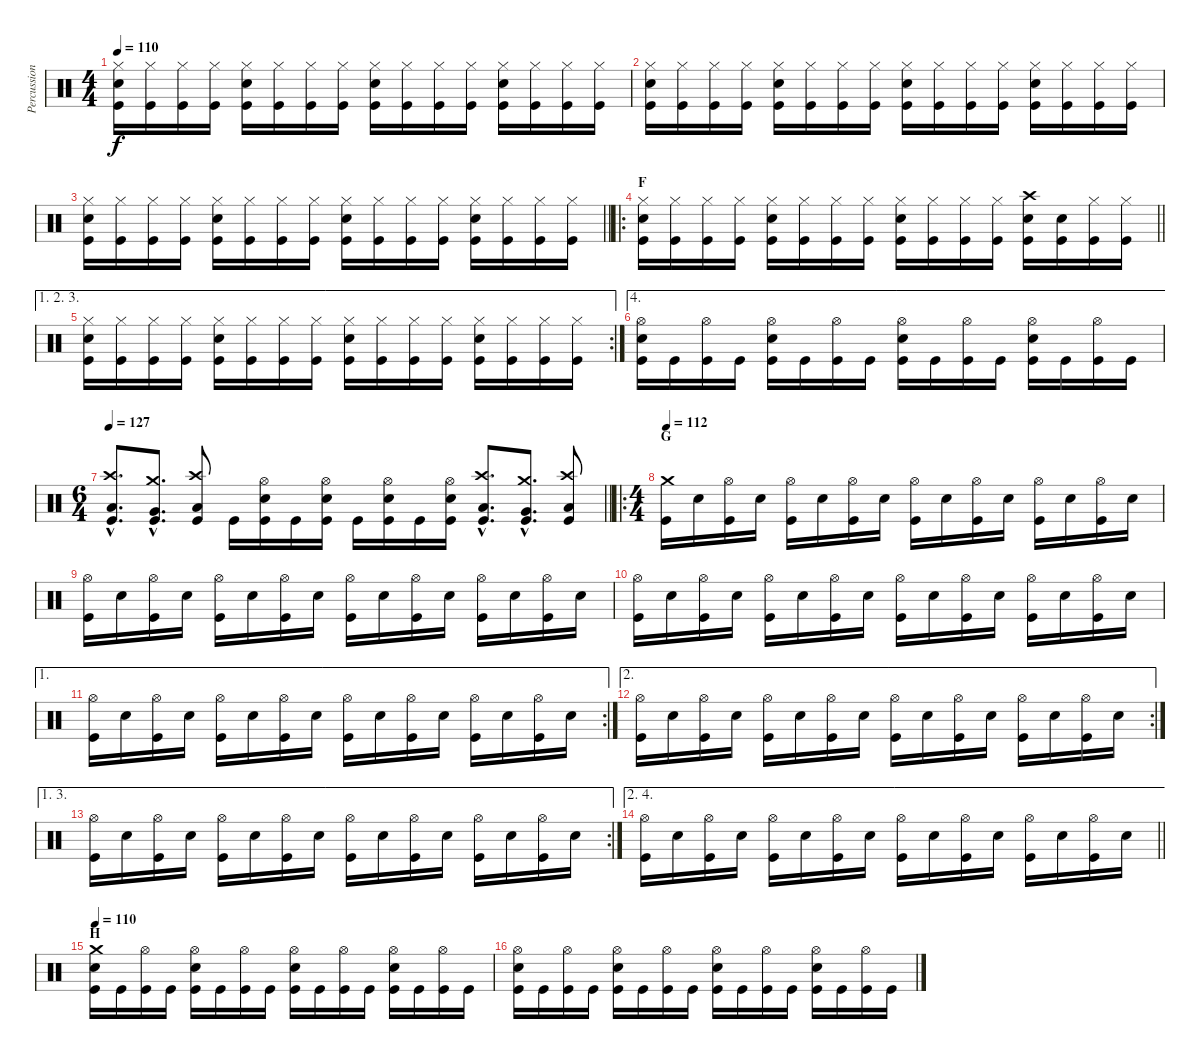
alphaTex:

\track ("Percussion" "Percussion") {instrument percussion}
\staff {score}
\articulation defaults
\ts (4 4)
\tempo 110
\clef neutral
\ks c
("Kick (hit)" "Hi-Hat (closed)" "Snare (hit) 2").16{dy f} ("Kick (hit)" "Hi-Hat (closed)").16 ("Kick (hit)" "Hi-Hat (closed)").16 ("Kick (hit)" "Hi-Hat (closed)").16 ("Kick (hit)" "Hi-Hat (closed)" "Snare (hit) 2").16 ("Kick (hit)" "Hi-Hat (closed)").16 ("Kick (hit)" "Hi-Hat (closed)").16 ("Kick (hit)" "Hi-Hat (closed)").16 ("Kick (hit)" "Hi-Hat (closed)" "Snare (hit) 2").16 ("Kick (hit)" "Hi-Hat (closed)").16 ("Kick (hit)" "Hi-Hat (closed)").16 ("Kick (hit)" "Hi-Hat (closed)").16 ("Kick (hit)" "Hi-Hat (closed)" "Snare (hit) 2").16 ("Kick (hit)" "Hi-Hat (closed)").16 ("Kick (hit)" "Hi-Hat (closed)").16 ("Kick (hit)" "Hi-Hat (closed)").16 |
("Kick (hit)" "Hi-Hat (closed)" "Snare (hit) 2").16 ("Kick (hit)" "Hi-Hat (closed)").16 ("Kick (hit)" "Hi-Hat (closed)").16 ("Kick (hit)" "Hi-Hat (closed)").16 ("Kick (hit)" "Hi-Hat (closed)" "Snare (hit) 2").16 ("Kick (hit)" "Hi-Hat (closed)").16 ("Kick (hit)" "Hi-Hat (closed)").16 ("Kick (hit)" "Hi-Hat (closed)").16 ("Kick (hit)" "Hi-Hat (closed)" "Snare (hit) 2").16 ("Kick (hit)" "Hi-Hat (closed)").16 ("Kick (hit)" "Hi-Hat (closed)").16 ("Kick (hit)" "Hi-Hat (closed)").16 ("Kick (hit)" "Hi-Hat (closed)" "Snare (hit) 2").16 ("Kick (hit)" "Hi-Hat (closed)").16 ("Kick (hit)" "Hi-Hat (closed)").16 ("Kick (hit)" "Hi-Hat (closed)").16 |
\barLineRight lightlight
("Kick (hit)" "Hi-Hat (closed)" "Snare (hit) 2").16 ("Kick (hit)" "Hi-Hat (closed)").16 ("Kick (hit)" "Hi-Hat (closed)").16 ("Kick (hit)" "Hi-Hat (closed)").16 ("Kick (hit)" "Hi-Hat (closed)" "Snare (hit) 2").16 ("Kick (hit)" "Hi-Hat (closed)").16 ("Kick (hit)" "Hi-Hat (closed)").16 ("Kick (hit)" "Hi-Hat (closed)").16 ("Kick (hit)" "Hi-Hat (closed)" "Snare (hit) 2").16 ("Kick (hit)" "Hi-Hat (closed)").16 ("Kick (hit)" "Hi-Hat (closed)").16 ("Kick (hit)" "Hi-Hat (closed)").16 ("Kick (hit)" "Hi-Hat (closed)" "Snare (hit) 2").16 ("Kick (hit)" "Hi-Hat (closed)").16 ("Kick (hit)" "Hi-Hat (closed)").16 ("Kick (hit)" "Hi-Hat (closed)").16 |
\ro
\section ("" "F")
\barLineRight lightlight
("Kick (hit)" "Hi-Hat (closed)" "Snare (hit) 2").16 ("Kick (hit)" "Hi-Hat (closed)").16 ("Kick (hit)" "Hi-Hat (closed)").16 ("Kick (hit)" "Hi-Hat (closed)").16 ("Kick (hit)" "Hi-Hat (closed)" "Snare (hit) 2").16 ("Kick (hit)" "Hi-Hat (closed)").16 ("Kick (hit)" "Hi-Hat (closed)").16 ("Kick (hit)" "Hi-Hat (closed)").16 ("Kick (hit)" "Hi-Hat (closed)" "Snare (hit) 2").16 ("Kick (hit)" "Hi-Hat (closed)").16 ("Kick (hit)" "Hi-Hat (closed)").16 ("Kick (hit)" "Hi-Hat (closed)").16 ("Kick (hit)" "Crash high (hit)" "Snare (hit) 2").16 ("Kick (hit)" "Snare (hit) 2").16 ("Kick (hit)" "Hi-Hat (closed)").16 ("Kick (hit)" "Hi-Hat (closed)").16 |
\ae (1 2 3)
\rc 2
("Kick (hit)" "Hi-Hat (closed)" "Snare (hit) 2").16 ("Kick (hit)" "Hi-Hat (closed)").16 ("Kick (hit)" "Hi-Hat (closed)").16 ("Kick (hit)" "Hi-Hat (closed)").16 ("Kick (hit)" "Hi-Hat (closed)" "Snare (hit) 2").16 ("Kick (hit)" "Hi-Hat (closed)").16 ("Kick (hit)" "Hi-Hat (closed)").16 ("Kick (hit)" "Hi-Hat (closed)").16 ("Kick (hit)" "Hi-Hat (closed)" "Snare (hit) 2").16 ("Kick (hit)" "Hi-Hat (closed)").16 ("Kick (hit)" "Hi-Hat (closed)").16 ("Kick (hit)" "Hi-Hat (closed)").16 ("Kick (hit)" "Hi-Hat (closed)" "Snare (hit) 2").16 ("Kick (hit)" "Hi-Hat (closed)").16 ("Kick (hit)" "Hi-Hat (closed)").16 ("Kick (hit)" "Hi-Hat (closed)").16 |
\ae 4
("Kick (hit)" "Hi-Hat (open)" "Snare (hit) 2").16 "Kick (hit)".16 ("Kick (hit)" "Hi-Hat (open)").16 "Kick (hit)".16 ("Kick (hit)" "Hi-Hat (open)" "Snare (hit) 2").16 "Kick (hit)".16 ("Kick (hit)" "Hi-Hat (open)").16 "Kick (hit)".16 ("Kick (hit)" "Hi-Hat (open)" "Snare (hit) 2").16 "Kick (hit)".16 ("Kick (hit)" "Hi-Hat (open)").16 "Kick (hit)".16 ("Kick (hit)" "Hi-Hat (open)" "Snare (hit) 2").16 "Kick (hit)".16 ("Kick (hit)" "Hi-Hat (open)").16 "Kick (hit)".16 |
\ts (6 4)
\tempo 127
\barLineRight lightlight
("Kick (hit)"{hac} "Crash high (hit)"{hac} "Low Tom (hit)"{hac}).8{d} ("Kick (hit)"{hac} "Crash medium (hit)"{hac} "Very Low Tom (hit)"{hac}).8{d} ("Kick (hit)" "Crash high (hit)" "Low Floor Tom (hit)").8 "Kick (hit)".16 ("Kick (hit)" "Hi-Hat (open)" "Snare (hit) 2").16 "Kick (hit)".16 ("Kick (hit)" "Hi-Hat (open)" "Snare (hit) 2").16 "Kick (hit)".16 ("Kick (hit)" "Hi-Hat (open)" "Snare (hit) 2").16 "Kick (hit)".16 ("Kick (hit)" "Hi-Hat (open)" "Snare (hit) 2").16 ("Kick (hit)"{hac} "Crash high (hit)"{hac} "Low Tom (hit)"{hac}).8{d bd 120} ("Kick (hit)"{hac} "Crash medium (hit)"{hac} "Very Low Tom (hit)"{hac}).8{d} ("Kick (hit)" "Crash high (hit)" "Low Floor Tom (hit)").8 |
\ro
\ts (4 4)
\section ("" "G")
\tempo 112
("Kick (hit)" "Crash medium (hit)").16 "Snare (hit) 2".16 ("Kick (hit)" "Hi-Hat (open)").16 "Snare (hit) 2".16 ("Kick (hit)" "Hi-Hat (open)").16 "Snare (hit) 2".16 ("Kick (hit)" "Hi-Hat (open)").16 "Snare (hit) 2".16 ("Kick (hit)" "Hi-Hat (open)").16 "Snare (hit) 2".16 ("Kick (hit)" "Hi-Hat (open)").16 "Snare (hit) 2".16 ("Kick (hit)" "Hi-Hat (open)").16 "Snare (hit) 2".16 ("Kick (hit)" "Hi-Hat (open)").16 "Snare (hit) 2".16 |
("Kick (hit)" "Hi-Hat (open)").16 "Snare (hit) 2".16 ("Kick (hit)" "Hi-Hat (open)").16 "Snare (hit) 2".16 ("Kick (hit)" "Hi-Hat (open)").16 "Snare (hit) 2".16 ("Kick (hit)" "Hi-Hat (open)").16 "Snare (hit) 2".16 ("Kick (hit)" "Hi-Hat (open)").16 "Snare (hit) 2".16 ("Kick (hit)" "Hi-Hat (open)").16 "Snare (hit) 2".16 ("Kick (hit)" "Hi-Hat (open)").16 "Snare (hit) 2".16 ("Kick (hit)" "Hi-Hat (open)").16 "Snare (hit) 2".16 |
("Kick (hit)" "Hi-Hat (open)").16 "Snare (hit) 2".16 ("Kick (hit)" "Hi-Hat (open)").16 "Snare (hit) 2".16 ("Kick (hit)" "Hi-Hat (open)").16 "Snare (hit) 2".16 ("Kick (hit)" "Hi-Hat (open)").16 "Snare (hit) 2".16 ("Kick (hit)" "Hi-Hat (open)").16 "Snare (hit) 2".16 ("Kick (hit)" "Hi-Hat (open)").16 "Snare (hit) 2".16 ("Kick (hit)" "Hi-Hat (open)").16 "Snare (hit) 2".16 ("Kick (hit)" "Hi-Hat (open)").16 "Snare (hit) 2".16 |
\ae 1
\rc 2
("Kick (hit)" "Hi-Hat (open)").16 "Snare (hit) 2".16 ("Kick (hit)" "Hi-Hat (open)").16 "Snare (hit) 2".16 ("Kick (hit)" "Hi-Hat (open)").16 "Snare (hit) 2".16 ("Kick (hit)" "Hi-Hat (open)").16 "Snare (hit) 2".16 ("Kick (hit)" "Hi-Hat (open)").16 "Snare (hit) 2".16 ("Kick (hit)" "Hi-Hat (open)").16 "Snare (hit) 2".16 ("Kick (hit)" "Hi-Hat (open)").16 "Snare (hit) 2".16 ("Kick (hit)" "Hi-Hat (open)").16 "Snare (hit) 2".16 |
\ae 2
\rc 2
("Kick (hit)" "Hi-Hat (open)").16 "Snare (hit) 2".16 ("Kick (hit)" "Hi-Hat (open)").16 "Snare (hit) 2".16 ("Kick (hit)" "Hi-Hat (open)").16 "Snare (hit) 2".16 ("Kick (hit)" "Hi-Hat (open)").16 "Snare (hit) 2".16 ("Kick (hit)" "Hi-Hat (open)").16 "Snare (hit) 2".16 ("Kick (hit)" "Hi-Hat (open)").16 "Snare (hit) 2".16 ("Kick (hit)" "Hi-Hat (open)").16 "Snare (hit) 2".16 ("Kick (hit)" "Hi-Hat (open)").16 "Snare (hit) 2".16 |
\ae (1 3)
\rc 2
("Kick (hit)" "Hi-Hat (open)").16 "Snare (hit) 2".16 ("Kick (hit)" "Hi-Hat (open)").16 "Snare (hit) 2".16 ("Kick (hit)" "Hi-Hat (open)").16 "Snare (hit) 2".16 ("Kick (hit)" "Hi-Hat (open)").16 "Snare (hit) 2".16 ("Kick (hit)" "Hi-Hat (open)").16 "Snare (hit) 2".16 ("Kick (hit)" "Hi-Hat (open)").16 "Snare (hit) 2".16 ("Kick (hit)" "Hi-Hat (open)").16 "Snare (hit) 2".16 ("Kick (hit)" "Hi-Hat (open)").16 "Snare (hit) 2".16 |
\ae (2 4)
\barLineRight lightlight
("Kick (hit)" "Hi-Hat (open)").16 "Snare (hit) 2".16 ("Kick (hit)" "Hi-Hat (open)").16 "Snare (hit) 2".16 ("Kick (hit)" "Hi-Hat (open)").16 "Snare (hit) 2".16 ("Kick (hit)" "Hi-Hat (open)").16 "Snare (hit) 2".16 ("Kick (hit)" "Hi-Hat (open)").16 "Snare (hit) 2".16 ("Kick (hit)" "Hi-Hat (open)").16 "Snare (hit) 2".16 ("Kick (hit)" "Hi-Hat (open)").16 "Snare (hit) 2".16 ("Kick (hit)" "Hi-Hat (open)").16 "Snare (hit) 2".16 |
\section ("" "H")
\tempo 110
("Kick (hit)" "Crash medium (hit)" "Snare (hit) 2").16 "Kick (hit)".16 ("Kick (hit)" "Hi-Hat (open)").16 "Kick (hit)".16 ("Kick (hit)" "Hi-Hat (open)" "Snare (hit) 2").16 "Kick (hit)".16 ("Kick (hit)" "Hi-Hat (open)").16 "Kick (hit)".16 ("Kick (hit)" "Hi-Hat (open)" "Snare (hit) 2").16 "Kick (hit)".16 ("Kick (hit)" "Hi-Hat (open)").16 "Kick (hit)".16 ("Kick (hit)" "Hi-Hat (open)" "Snare (hit) 2").16 "Kick (hit)".16 ("Kick (hit)" "Hi-Hat (open)").16 "Kick (hit)".16 |
("Kick (hit)" "Hi-Hat (open)" "Snare (hit) 2").16 "Kick (hit)".16 ("Kick (hit)" "Hi-Hat (open)").16 "Kick (hit)".16 ("Kick (hit)" "Hi-Hat (open)" "Snare (hit) 2").16 "Kick (hit)".16 ("Kick (hit)" "Hi-Hat (open)").16 "Kick (hit)".16 ("Kick (hit)" "Hi-Hat (open)" "Snare (hit) 2").16 "Kick (hit)".16 ("Kick (hit)" "Hi-Hat (open)").16 "Kick (hit)".16 ("Kick (hit)" "Hi-Hat (open)" "Snare (hit) 2").16 "Kick (hit)".16 ("Kick (hit)" "Hi-Hat (open)").16 "Kick (hit)".16
